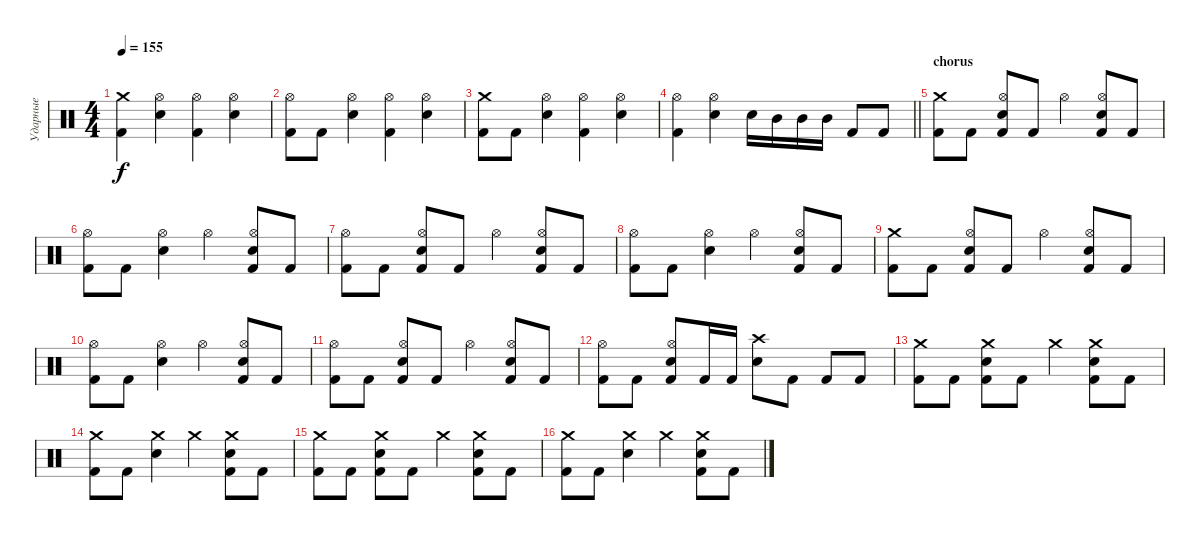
\track ("Ударные" "Ударные") {instrument percussion}
\staff {score}
\articulation defaults
\ts (4 4)
\tempo 155
\clef neutral
\ks c
("Crash medium (hit)" "Kick (hit) 2").4{dy f} ("Hi-Hat (open)" "Electric Snare (hit)").4 ("Hi-Hat (open)" "Kick (hit) 2").4 ("Hi-Hat (open)" "Electric Snare (hit)").4 |
("Hi-Hat (open)" "Kick (hit) 2").8 "Kick (hit) 2".8 ("Hi-Hat (open)" "Electric Snare (hit)").4 ("Hi-Hat (open)" "Kick (hit) 2").4 ("Hi-Hat (open)" "Electric Snare (hit)").4 |
("Crash medium (hit)" "Kick (hit) 2").8 "Kick (hit) 2".8 ("Hi-Hat (open)" "Electric Snare (hit)").4 ("Hi-Hat (open)" "Kick (hit) 2").4 ("Hi-Hat (open)" "Electric Snare (hit)").4 |
\barLineRight lightlight
("Hi-Hat (open)" "Kick (hit) 2").4 ("Hi-Hat (open)" "Electric Snare (hit)").4 "Electric Snare (hit)".16 "Mid Tom (hit)".16 "Mid Tom (hit)".16 "Mid Tom (hit)".16 "Kick (hit) 2".8 "Kick (hit) 2".8 |
\section ("" "chorus")
("Crash medium (hit)" "Kick (hit) 2").8 "Kick (hit) 2".8 ("Hi-Hat (open)" "Electric Snare (hit)" "Kick (hit) 2").8 "Kick (hit) 2".8 "Hi-Hat (open)".4 ("Hi-Hat (open)" "Electric Snare (hit)" "Kick (hit) 2").8 "Kick (hit) 2".8 |
("Hi-Hat (open)" "Kick (hit) 2").8 "Kick (hit) 2".8 ("Hi-Hat (open)" "Electric Snare (hit)").4 "Hi-Hat (open)".4 ("Hi-Hat (open)" "Electric Snare (hit)" "Kick (hit) 2").8 "Kick (hit) 2".8 |
("Hi-Hat (open)" "Kick (hit) 2").8 "Kick (hit) 2".8 ("Hi-Hat (open)" "Electric Snare (hit)" "Kick (hit) 2").8 "Kick (hit) 2".8 "Hi-Hat (open)".4 ("Hi-Hat (open)" "Electric Snare (hit)" "Kick (hit) 2").8 "Kick (hit) 2".8 |
("Hi-Hat (open)" "Kick (hit) 2").8 "Kick (hit) 2".8 ("Hi-Hat (open)" "Electric Snare (hit)").4 "Hi-Hat (open)".4 ("Hi-Hat (open)" "Electric Snare (hit)" "Kick (hit) 2").8 "Kick (hit) 2".8 |
("Crash medium (hit)" "Kick (hit) 2").8 "Kick (hit) 2".8 ("Hi-Hat (open)" "Electric Snare (hit)" "Kick (hit) 2").8 "Kick (hit) 2".8 "Hi-Hat (open)".4 ("Hi-Hat (open)" "Electric Snare (hit)" "Kick (hit) 2").8 "Kick (hit) 2".8 |
("Hi-Hat (open)" "Kick (hit) 2").8 "Kick (hit) 2".8 ("Hi-Hat (open)" "Electric Snare (hit)").4 "Hi-Hat (open)".4 ("Hi-Hat (open)" "Electric Snare (hit)" "Kick (hit) 2").8 "Kick (hit) 2".8 |
("Hi-Hat (open)" "Kick (hit) 2").8 "Kick (hit) 2".8 ("Hi-Hat (open)" "Electric Snare (hit)" "Kick (hit) 2").8 "Kick (hit) 2".8 "Hi-Hat (open)".4 ("Hi-Hat (open)" "Electric Snare (hit)" "Kick (hit) 2").8 "Kick (hit) 2".8 |
("Hi-Hat (open)" "Kick (hit) 2").8 "Kick (hit) 2".8 ("Hi-Hat (open)" "Electric Snare (hit)" "Kick (hit) 2").8 "Kick (hit) 2".16 "Kick (hit) 2".16 ("Crash high (hit)" "Electric Snare (hit)").8 "Kick (hit) 2".8 "Kick (hit) 2".8 "Kick (hit) 2".8 |
("Crash medium (hit)" "Kick (hit) 2").8 "Kick (hit) 2".8 ("Crash medium (hit)" "Electric Snare (hit)" "Kick (hit) 2").8 "Kick (hit) 2".8 "Crash medium (hit)".4 ("Crash medium (hit)" "Electric Snare (hit)" "Kick (hit) 2").8 "Kick (hit) 2".8 |
("Crash medium (hit)" "Kick (hit) 2").8 "Kick (hit) 2".8 ("Crash medium (hit)" "Electric Snare (hit)").4 "Crash medium (hit)".4 ("Crash medium (hit)" "Electric Snare (hit)" "Kick (hit) 2").8 "Kick (hit) 2".8 |
("Crash medium (hit)" "Kick (hit) 2").8 "Kick (hit) 2".8 ("Crash medium (hit)" "Electric Snare (hit)" "Kick (hit) 2").8 "Kick (hit) 2".8 "Crash medium (hit)".4 ("Crash medium (hit)" "Electric Snare (hit)" "Kick (hit) 2").8 "Kick (hit) 2".8 |
("Crash medium (hit)" "Kick (hit) 2").8 "Kick (hit) 2".8 ("Crash medium (hit)" "Electric Snare (hit)").4 "Crash medium (hit)".4 ("Crash medium (hit)" "Electric Snare (hit)" "Kick (hit) 2").8 "Kick (hit) 2".8
